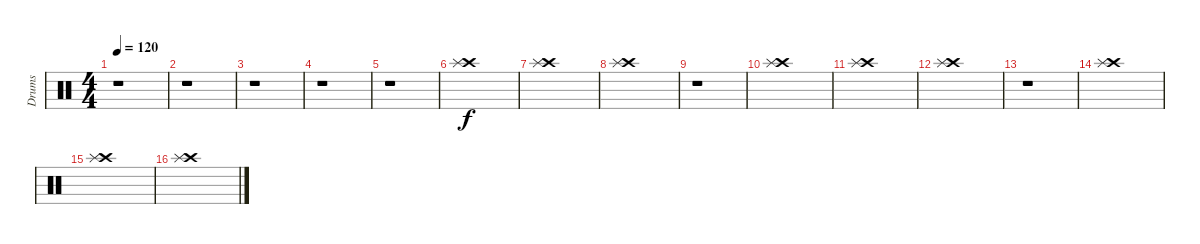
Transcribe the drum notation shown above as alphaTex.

\track ("Drums" "Drums") {instrument percussion}
\staff {score}
\articulation defaults
\ts (4 4)
\tempo 120
\clef neutral
\ks c
r.1{dy f} |
r.1 |
r.1 |
r.1 |
r.1 |
("Crash high (hit)" "Splash (hit)").1 |
("Crash high (hit)" "Splash (hit)").1 |
("Crash high (hit)" "Splash (hit)").1 |
r.1 |
("Crash high (hit)" "Splash (hit)").1 |
("Crash high (hit)" "Splash (hit)").1 |
("Crash high (hit)" "Splash (hit)").1 |
r.1 |
("Crash high (hit)" "Splash (hit)").1 |
("Crash high (hit)" "Splash (hit)").1 |
("Crash high (hit)" "Splash (hit)").1
